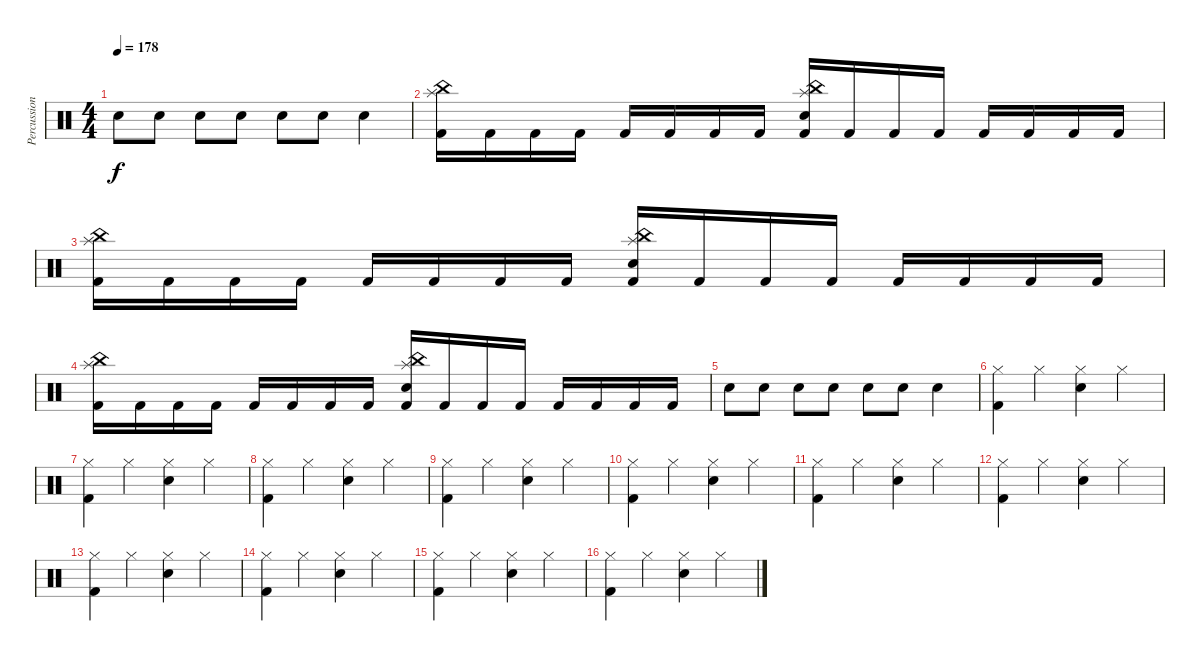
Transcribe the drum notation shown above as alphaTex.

\track ("Percussion" "Percussion") {instrument percussion}
\staff {score}
\articulation defaults
\ts (4 4)
\tempo 178
\clef neutral
\ks c "Electric Snare (hit)".8{dy f} "Electric Snare (hit)".8 "Electric Snare (hit)".8 "Electric Snare (hit)".8 "Electric Snare (hit)".8 "Electric Snare (hit)".8 "Electric Snare (hit)".4
|
("China (hit)" "Splash (hit)" "Kick (hit) 2").16 "Kick (hit) 2".16 "Kick (hit) 2".16 "Kick (hit) 2".16 "Kick (hit) 2".16 "Kick (hit) 2".16 "Kick (hit) 2".16 "Kick (hit) 2".16 ("China (hit)" "Splash (hit)" "Electric Snare (hit)" "Kick (hit) 2").16 "Kick (hit) 2".16 "Kick (hit) 2".16 "Kick (hit) 2".16 "Kick (hit) 2".16 "Kick (hit) 2".16 "Kick (hit) 2".16 "Kick (hit) 2".16 |
("China (hit)" "Splash (hit)" "Kick (hit) 2").16 "Kick (hit) 2".16 "Kick (hit) 2".16 "Kick (hit) 2".16 "Kick (hit) 2".16 "Kick (hit) 2".16 "Kick (hit) 2".16 "Kick (hit) 2".16 ("China (hit)" "Splash (hit)" "Electric Snare (hit)" "Kick (hit) 2").16 "Kick (hit) 2".16 "Kick (hit) 2".16 "Kick (hit) 2".16 "Kick (hit) 2".16 "Kick (hit) 2".16 "Kick (hit) 2".16 "Kick (hit) 2".16 |
("China (hit)" "Splash (hit)" "Kick (hit) 2").16 "Kick (hit) 2".16 "Kick (hit) 2".16 "Kick (hit) 2".16 "Kick (hit) 2".16 "Kick (hit) 2".16 "Kick (hit) 2".16 "Kick (hit) 2".16 ("China (hit)" "Splash (hit)" "Electric Snare (hit)" "Kick (hit) 2").16 "Kick (hit) 2".16 "Kick (hit) 2".16 "Kick (hit) 2".16 "Kick (hit) 2".16 "Kick (hit) 2".16 "Kick (hit) 2".16 "Kick (hit) 2".16 |
"Electric Snare (hit)".8 "Electric Snare (hit)".8 "Electric Snare (hit)".8 "Electric Snare (hit)".8 "Electric Snare (hit)".8 "Electric Snare (hit)".8 "Electric Snare (hit)".4 |
("Hi-Hat (closed)" "Kick (hit) 2").4 "Hi-Hat (closed)".4 ("Hi-Hat (closed)" "Electric Snare (hit)").4 "Hi-Hat (closed)".4 |
("Hi-Hat (closed)" "Kick (hit) 2").4 "Hi-Hat (closed)".4 ("Hi-Hat (closed)" "Electric Snare (hit)").4 "Hi-Hat (closed)".4 |
("Hi-Hat (closed)" "Kick (hit) 2").4 "Hi-Hat (closed)".4 ("Hi-Hat (closed)" "Electric Snare (hit)").4 "Hi-Hat (closed)".4 |
("Hi-Hat (closed)" "Kick (hit) 2").4 "Hi-Hat (closed)".4 ("Hi-Hat (closed)" "Electric Snare (hit)").4 "Hi-Hat (closed)".4 |
("Hi-Hat (closed)" "Kick (hit) 2").4 "Hi-Hat (closed)".4 ("Hi-Hat (closed)" "Electric Snare (hit)").4 "Hi-Hat (closed)".4 |
("Hi-Hat (closed)" "Kick (hit) 2").4 "Hi-Hat (closed)".4 ("Hi-Hat (closed)" "Electric Snare (hit)").4 "Hi-Hat (closed)".4 |
("Hi-Hat (closed)" "Kick (hit) 2").4 "Hi-Hat (closed)".4 ("Hi-Hat (closed)" "Electric Snare (hit)").4 "Hi-Hat (closed)".4 |
("Hi-Hat (closed)" "Kick (hit) 2").4 "Hi-Hat (closed)".4 ("Hi-Hat (closed)" "Electric Snare (hit)").4 "Hi-Hat (closed)".4 |
("Hi-Hat (closed)" "Kick (hit) 2").4 "Hi-Hat (closed)".4 ("Hi-Hat (closed)" "Electric Snare (hit)").4 "Hi-Hat (closed)".4 |
("Hi-Hat (closed)" "Kick (hit) 2").4 "Hi-Hat (closed)".4 ("Hi-Hat (closed)" "Electric Snare (hit)").4 "Hi-Hat (closed)".4 |
("Hi-Hat (closed)" "Kick (hit) 2").4 "Hi-Hat (closed)".4 ("Hi-Hat (closed)" "Electric Snare (hit)").4 "Hi-Hat (closed)".4
